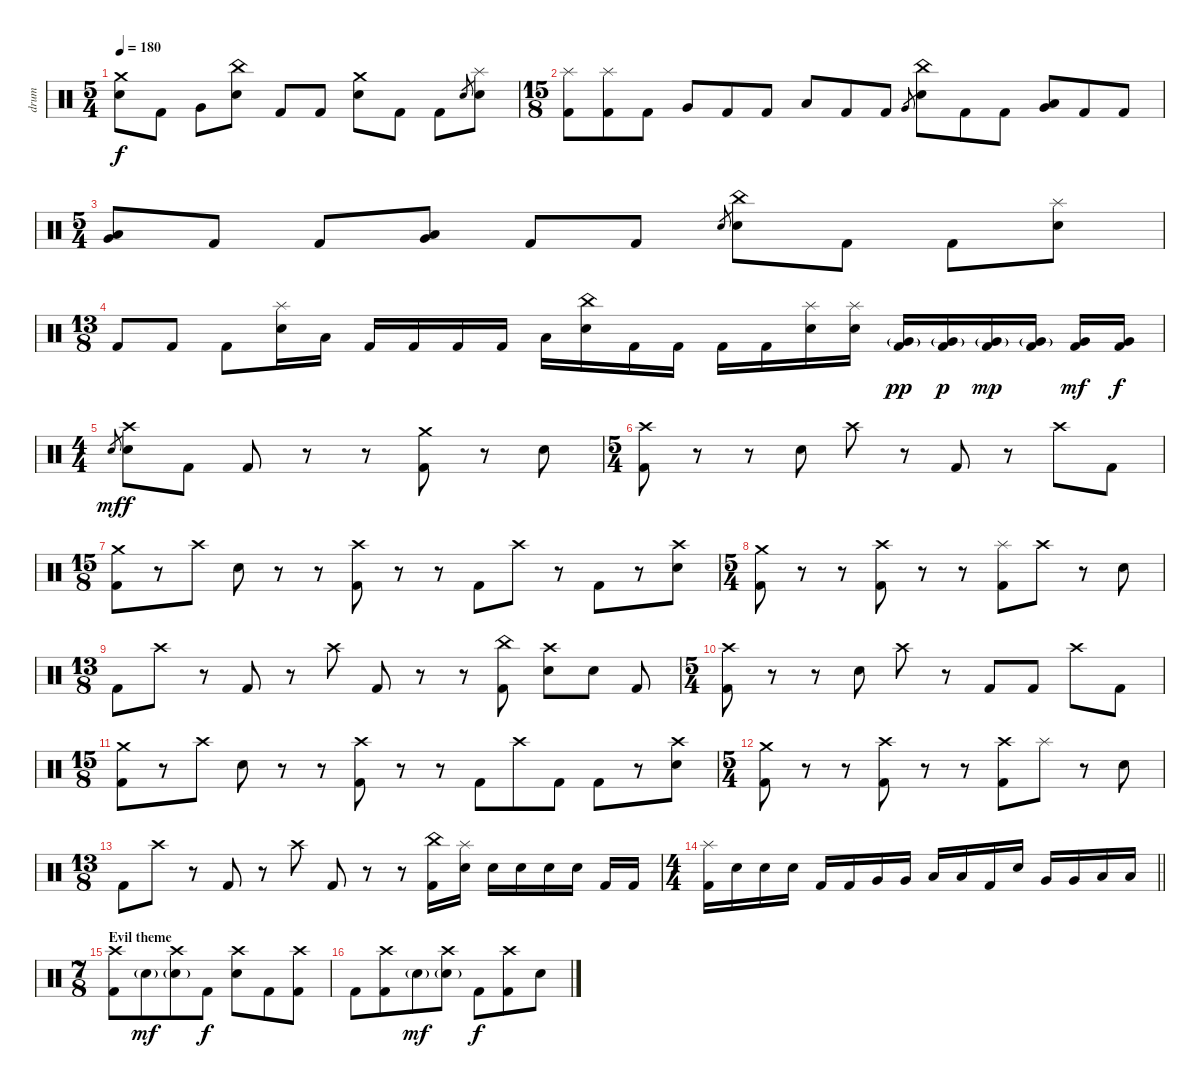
\track ("drum" "drum") {instrument percussion}
\staff {score}
\articulation defaults
\ts (5 4)
\tempo 180
\clef neutral
\ks c
("Crash medium (hit)" "Electric Snare (hit)").8{dy f} "Kick (hit) 2".8 "Very Low Tom (hit)".8 ("China (hit)" "Electric Snare (hit)").8 "Kick (hit) 2".8 "Kick (hit) 2".8 ("Crash medium (hit)" "Electric Snare (hit)").8 "Kick (hit) 2".8 "Kick (hit) 2".8 "Electric Snare (hit)".8{gr} ("Splash (hit)" "Electric Snare (hit)").8 |
\ts (15 8)
("Splash (hit)" "Kick (hit) 2").8 ("Splash (hit)" "Kick (hit) 2").8 "Kick (hit) 2".8 "Very Low Tom (hit)".8 "Kick (hit) 2".8 "Kick (hit) 2".8 "Low Floor Tom (hit)".8 "Kick (hit) 2".8 "Kick (hit) 2".8 "Very Low Tom (hit)".8{gr} ("China (hit)" "Electric Snare (hit)").8 "Kick (hit) 2".8 "Kick (hit) 2".8 ("Low Floor Tom (hit)" "Very Low Tom (hit)").8 "Kick (hit) 2".8 "Kick (hit) 2".8 |
\ts (5 4)
("Low Tom (hit)" "Very Low Tom (hit)").8 "Kick (hit) 2".8 "Kick (hit) 2".8 ("Low Floor Tom (hit)" "Very Low Tom (hit)").8 "Kick (hit) 2".8 "Kick (hit) 2".8 "Electric Snare (hit)".8{gr} ("China (hit)" "Electric Snare (hit)").8 "Kick (hit) 2".8 "Kick (hit) 2".8 ("Splash (hit)" "Electric Snare (hit)").8 |
\ts (13 8)
"Kick (hit) 2".8 "Kick (hit) 2".8 "Kick (hit) 2".8 ("Splash (hit)" "Electric Snare (hit)").16 "Low Tom (hit)".16 "Kick (hit) 2".16 "Kick (hit) 2".16 "Kick (hit) 2".16 "Kick (hit) 2".16 "Low Tom (hit)".16 ("China (hit)" "Electric Snare (hit)").16 "Kick (hit) 2".16 "Kick (hit) 2".16 "Kick (hit) 2".16 "Kick (hit) 2".16 ("Splash (hit)" "Electric Snare (hit)").16 ("Splash (hit)" "Electric Snare (hit)").16 ("Very Low Tom (hit)"{g} "Kick (hit) 2").16{dy pp} ("Very Low Tom (hit)"{g} "Kick (hit) 2").16{dy p} ("Very Low Tom (hit)"{g} "Kick (hit) 2").16{dy mp} ("Very Low Tom (hit)"{g} "Kick (hit) 2").16 ("Very Low Tom (hit)" "Kick (hit) 2").16{dy mf} ("Very Low Tom (hit)" "Kick (hit) 2").16{dy f} |
\ts (4 4)
"Electric Snare (hit)".8{gr dy mf} ("Crash high (hit)" "Electric Snare (hit)").8{dy f} "Kick (hit) 2".8 "Kick (hit) 2".8 r.8 r.8 ("Crash medium (hit)" "Kick (hit) 2").8 r.8 "Electric Snare (hit)".8 |
\ts (5 4)
("Crash high (hit)" "Kick (hit) 2").8 r.8 r.8 "Electric Snare (hit)".8 "Crash high (hit)".8 r.8 "Kick (hit) 2".8 r.8 "Crash high (hit)".8 "Kick (hit) 2".8 |
\ts (15 8)
("Crash medium (hit)" "Kick (hit) 2").8 r.8 "Crash high (hit)".8 "Electric Snare (hit)".8 r.8 r.8 ("Crash high (hit)" "Kick (hit) 2").8 r.8 r.8 "Kick (hit) 2".8 "Crash high (hit)".8 r.8 "Kick (hit) 2".8 r.8 ("Crash high (hit)" "Electric Snare (hit)").8 |
\ts (5 4)
("Crash medium (hit)" "Kick (hit) 2").8 r.8 r.8 ("Crash high (hit)" "Kick (hit) 2").8 r.8 r.8 ("Splash (hit)" "Kick (hit) 2").8 "Crash high (hit)".8 r.8 "Electric Snare (hit)".8 |
\ts (13 8)
"Kick (hit) 2".8 "Crash high (hit)".8 r.8 "Kick (hit) 2".8 r.8 "Crash high (hit)".8 "Kick (hit) 2".8 r.8 r.8 ("China (hit)" "Kick (hit) 2").8 ("Crash high (hit)" "Electric Snare (hit)").8 "Electric Snare (hit)".8 "Kick (hit) 2".8 |
\ts (5 4)
("Crash high (hit)" "Kick (hit) 2").8 r.8 r.8 "Electric Snare (hit)".8 "Crash high (hit)".8 r.8 "Kick (hit) 2".8 "Kick (hit) 2".8 "Crash high (hit)".8 "Kick (hit) 2".8 |
\ts (15 8)
("Crash medium (hit)" "Kick (hit) 2").8 r.8 "Crash high (hit)".8 "Electric Snare (hit)".8 r.8 r.8 ("Crash high (hit)" "Kick (hit) 2").8 r.8 r.8 "Kick (hit) 2".8 "Crash high (hit)".8 "Kick (hit) 2".8 "Kick (hit) 2".8 r.8 ("Crash high (hit)" "Electric Snare (hit)").8 |
\ts (5 4)
("Crash medium (hit)" "Kick (hit) 2").8 r.8 r.8 ("Crash high (hit)" "Kick (hit) 2").8 r.8 r.8 ("Crash high (hit)" "Kick (hit) 2").8 "Splash (hit)".8 r.8 "Electric Snare (hit)".8 |
\ts (13 8)
"Kick (hit) 2".8 "Crash high (hit)".8 r.8 "Kick (hit) 2".8 r.8 "Crash high (hit)".8 "Kick (hit) 2".8 r.8 r.8 ("China (hit)" "Kick (hit) 2").16 ("Splash (hit)" "Electric Snare (hit)").16 "Electric Snare (hit)".16 "Electric Snare (hit)".16 "Electric Snare (hit)".16 "Electric Snare (hit)".16 "Kick (hit) 2".16 "Kick (hit) 2".16 |
\ts (4 4)
\barLineRight lightlight
("Splash (hit)" "Kick (hit) 2").16 "Electric Snare (hit)".16 "Electric Snare (hit)".16 "Electric Snare (hit)".16 "Kick (hit) 2".16 "Kick (hit) 2".16 "Very Low Tom (hit)".16 "Very Low Tom (hit)".16 "Low Floor Tom (hit)".16 "Low Floor Tom (hit)".16 "Kick (hit) 2".16 "Electric Snare (hit)".16 "Very Low Tom (hit)".16 "Very Low Tom (hit)".16 "Low Floor Tom (hit)".16 "Low Floor Tom (hit)".16 |
\ts (7 8)
\section ("" "Evil theme")
("Crash high (hit)" "Kick (hit) 2").8 "Electric Snare (hit)"{g}.8{dy mf} ("Crash high (hit)" "Electric Snare (hit)"{g}).8 "Kick (hit) 2".8{dy f} ("Crash high (hit)" "Electric Snare (hit)").8 "Kick (hit) 2".8 ("Crash high (hit)" "Kick (hit) 2").8 |
"Kick (hit) 2".8 ("Crash high (hit)" "Kick (hit) 2").8 "Electric Snare (hit)"{g}.8{dy mf} ("Crash high (hit)" "Electric Snare (hit)"{g}).8 "Kick (hit) 2".8{dy f} ("Crash high (hit)" "Kick (hit) 2").8 "Electric Snare (hit)".8
